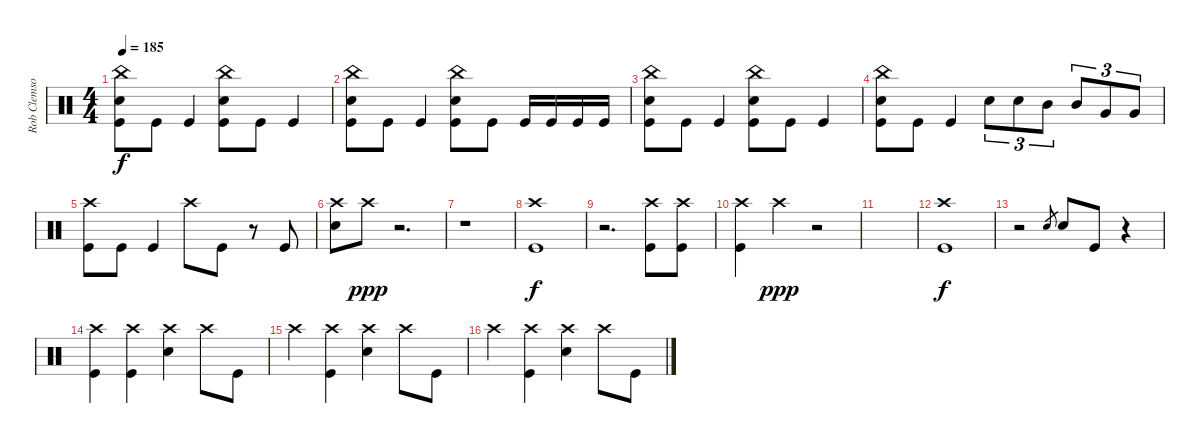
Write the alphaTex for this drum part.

\track ("Rob Clemson (Drums)" "Rob Clemso") {instrument percussion}
\staff {score}
\articulation defaults
\ts (4 4)
\tempo 185
\clef neutral
\ks c
("China (hit)" "Electric Snare (hit)" "Kick (hit)").8{dy f} "Kick (hit)".8 "Kick (hit)".4 ("China (hit)" "Electric Snare (hit)" "Kick (hit)").8 "Kick (hit)".8 "Kick (hit)".4 |
("China (hit)" "Electric Snare (hit)" "Kick (hit)").8 "Kick (hit)".8 "Kick (hit)".4 ("China (hit)" "Electric Snare (hit)" "Kick (hit)").8 "Kick (hit)".8 "Kick (hit)".16 "Kick (hit)".16 "Kick (hit)".16 "Kick (hit)".16 |
("China (hit)" "Electric Snare (hit)" "Kick (hit)").8 "Kick (hit)".8 "Kick (hit)".4 ("China (hit)" "Electric Snare (hit)" "Kick (hit)").8 "Kick (hit)".8 "Kick (hit)".4 |
("China (hit)" "Electric Snare (hit)" "Kick (hit)").8 "Kick (hit)".8 "Kick (hit)".4 "Electric Snare (hit)".8{tu (3 2)} "Electric Snare (hit)".8{tu (3 2)} "Mid Tom (hit)".8{tu (3 2)} "Mid Tom (hit)".8{tu (3 2)} "Very Low Tom (hit)".8{tu (3 2)} "Very Low Tom (hit)".8{tu (3 2)} |
("Kick (hit)" "Crash high (hit)").8 "Kick (hit)".8 "Kick (hit)".4 "Crash high (hit)".8 "Kick (hit)".8 r.8 "Kick (hit)".8 |
("Electric Snare (hit)" "Crash high (hit)").8 "Crash high (hit)".8{dy ppp} r.2{d} |
r.1 |
("Kick (hit)" "Crash high (hit)").1{dy f} |
r.2{d} ("Kick (hit)" "Crash high (hit)").8 ("Kick (hit)" "Crash high (hit)").8 |
("Kick (hit)" "Crash high (hit)").4 "Crash high (hit)".4{dy ppp} r.2 |
|
("Kick (hit)" "Crash high (hit)").1{dy f} |
r.2 "Electric Snare (hit)".8{gr} "Electric Snare (hit)".8 "Kick (hit)".8 r.4 |
("Crash high (hit)" "Kick (hit)").4 ("Crash high (hit)" "Kick (hit)").4 ("Crash high (hit)" "Electric Snare (hit)").4 "Crash high (hit)".8 "Kick (hit)".8 |
"Crash high (hit)".4 ("Crash high (hit)" "Kick (hit)").4 ("Crash high (hit)" "Electric Snare (hit)").4 "Crash high (hit)".8 "Kick (hit)".8 |
"Crash high (hit)".4 ("Crash high (hit)" "Kick (hit)").4 ("Crash high (hit)" "Electric Snare (hit)").4 "Crash high (hit)".8 "Kick (hit)".8
